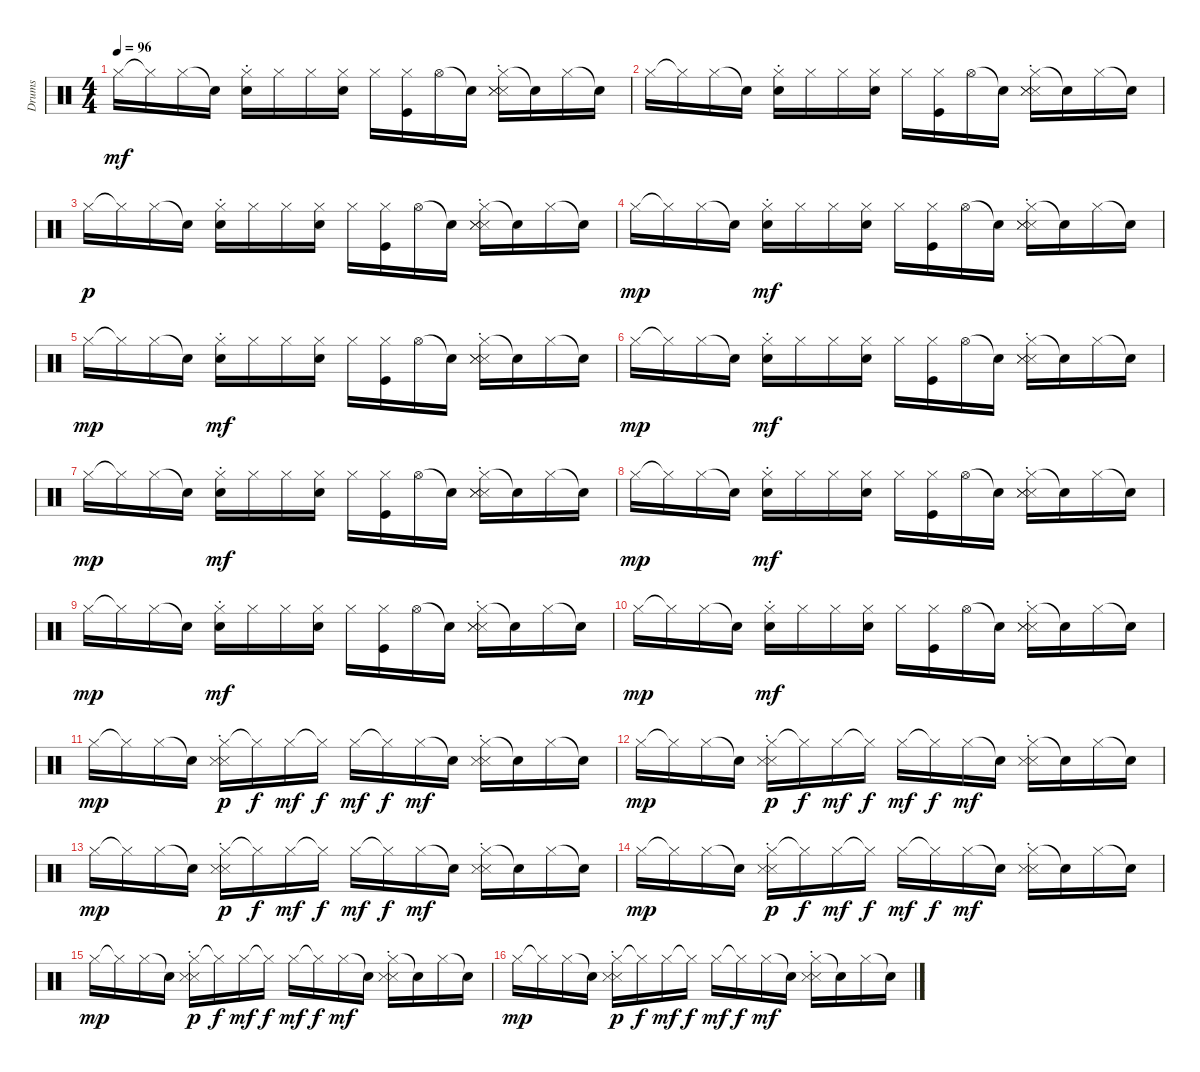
\track ("Drums" "Drums") {instrument percussion}
\staff {score}
\articulation defaults
\ts (4 4)
\tempo 96
\clef neutral
\ks c "Hi-Hat (closed)".16{dy mf} "Hi-Hat (closed)"{t}.16 "Hi-Hat (closed)".16 "Snare (hit)"{t}.16
("Hi-Hat (closed)" "Snare (hit) 2"{st}).16 "Hi-Hat (closed)".16 "Hi-Hat (closed)".16 ("Hi-Hat (closed)" "Snare (hit) 2").16 "Hi-Hat (closed)".16 ("Hi-Hat (closed)" "Kick (hit)").16 "Hi-Hat (open)".16 "Snare (hit)"{t}.16 ("Hi-Hat (closed)" "Snare (side stick) 3"{st} "Snare (side stick) 3" "Snare (side stick) 3").16 "Snare (hit)"{t}.16 "Hi-Hat (closed)".16 "Snare (hit)"{t}.16 |
"Hi-Hat (closed)".16 "Hi-Hat (closed)"{t}.16 "Hi-Hat (closed)".16 "Snare (hit)"{t}.16 ("Hi-Hat (closed)" "Snare (hit) 2"{st}).16 "Hi-Hat (closed)".16 "Hi-Hat (closed)".16 ("Hi-Hat (closed)" "Snare (hit) 2").16 "Hi-Hat (closed)".16 ("Hi-Hat (closed)" "Kick (hit)").16 "Hi-Hat (open)".16 "Snare (hit)"{t}.16 ("Hi-Hat (closed)" "Snare (side stick) 3"{st} "Snare (side stick) 3" "Snare (side stick) 3").16 "Snare (hit)"{t}.16 "Hi-Hat (closed)".16 "Snare (hit)"{t}.16 |
"Hi-Hat (closed)".16{dy p} "Hi-Hat (closed)"{t}.16 "Hi-Hat (closed)".16 "Snare (hit)"{t}.16 ("Hi-Hat (closed)" "Snare (hit) 2"{st}).16 "Hi-Hat (closed)".16 "Hi-Hat (closed)".16 ("Hi-Hat (closed)" "Snare (hit) 2").16 "Hi-Hat (closed)".16 ("Hi-Hat (closed)" "Kick (hit)").16 "Hi-Hat (open)".16 "Snare (hit)"{t}.16 ("Hi-Hat (closed)" "Snare (side stick) 3"{st} "Snare (side stick) 3" "Snare (side stick) 3").16 "Snare (hit)"{t}.16 "Hi-Hat (closed)".16 "Snare (hit)"{t}.16 |
"Hi-Hat (closed)".16{dy mp} "Hi-Hat (closed)"{t}.16 "Hi-Hat (closed)".16 "Snare (hit)"{t}.16 ("Hi-Hat (closed)" "Snare (hit) 2"{st}).16{dy mf} "Hi-Hat (closed)".16 "Hi-Hat (closed)".16 ("Hi-Hat (closed)" "Snare (hit) 2").16 "Hi-Hat (closed)".16 ("Hi-Hat (closed)" "Kick (hit)").16 "Hi-Hat (open)".16 "Snare (hit)"{t}.16 ("Hi-Hat (closed)" "Snare (side stick) 3"{st} "Snare (side stick) 3" "Snare (side stick) 3").16 "Snare (hit)"{t}.16 "Hi-Hat (closed)".16 "Snare (hit)"{t}.16 |
"Hi-Hat (closed)".16{dy mp} "Hi-Hat (closed)"{t}.16 "Hi-Hat (closed)".16 "Snare (hit)"{t}.16 ("Hi-Hat (closed)" "Snare (hit) 2"{st}).16{dy mf} "Hi-Hat (closed)".16 "Hi-Hat (closed)".16 ("Hi-Hat (closed)" "Snare (hit) 2").16 "Hi-Hat (closed)".16 ("Hi-Hat (closed)" "Kick (hit)").16 "Hi-Hat (open)".16 "Snare (hit)"{t}.16 ("Hi-Hat (closed)" "Snare (side stick) 3"{st} "Snare (side stick) 3" "Snare (side stick) 3").16 "Snare (hit)"{t}.16 "Hi-Hat (closed)".16 "Snare (hit)"{t}.16 |
"Hi-Hat (closed)".16{dy mp} "Hi-Hat (closed)"{t}.16 "Hi-Hat (closed)".16 "Snare (hit)"{t}.16 ("Hi-Hat (closed)" "Snare (hit) 2"{st}).16{dy mf} "Hi-Hat (closed)".16 "Hi-Hat (closed)".16 ("Hi-Hat (closed)" "Snare (hit) 2").16 "Hi-Hat (closed)".16 ("Hi-Hat (closed)" "Kick (hit)").16 "Hi-Hat (open)".16 "Snare (hit)"{t}.16 ("Hi-Hat (closed)" "Snare (side stick) 3"{st} "Snare (side stick) 3" "Snare (side stick) 3").16 "Snare (hit)"{t}.16 "Hi-Hat (closed)".16 "Snare (hit)"{t}.16 |
"Hi-Hat (closed)".16{dy mp} "Hi-Hat (closed)"{t}.16 "Hi-Hat (closed)".16 "Snare (hit)"{t}.16 ("Hi-Hat (closed)" "Snare (hit) 2"{st}).16{dy mf} "Hi-Hat (closed)".16 "Hi-Hat (closed)".16 ("Hi-Hat (closed)" "Snare (hit) 2").16 "Hi-Hat (closed)".16 ("Hi-Hat (closed)" "Kick (hit)").16 "Hi-Hat (open)".16 "Snare (hit)"{t}.16 ("Hi-Hat (closed)" "Snare (side stick) 3"{st} "Snare (side stick) 3" "Snare (side stick) 3").16 "Snare (hit)"{t}.16 "Hi-Hat (closed)".16 "Snare (hit)"{t}.16 |
"Hi-Hat (closed)".16{dy mp} "Hi-Hat (closed)"{t}.16 "Hi-Hat (closed)".16 "Snare (hit)"{t}.16 ("Hi-Hat (closed)" "Snare (hit) 2"{st}).16{dy mf} "Hi-Hat (closed)".16 "Hi-Hat (closed)".16 ("Hi-Hat (closed)" "Snare (hit) 2").16 "Hi-Hat (closed)".16 ("Hi-Hat (closed)" "Kick (hit)").16 "Hi-Hat (open)".16 "Snare (hit)"{t}.16 ("Hi-Hat (closed)" "Snare (side stick) 3"{st} "Snare (side stick) 3" "Snare (side stick) 3").16 "Snare (hit)"{t}.16 "Hi-Hat (closed)".16 "Snare (hit)"{t}.16 |
"Hi-Hat (closed)".16{dy mp} "Hi-Hat (closed)"{t}.16 "Hi-Hat (closed)".16 "Snare (hit)"{t}.16 ("Hi-Hat (closed)" "Snare (hit) 2"{st}).16{dy mf} "Hi-Hat (closed)".16 "Hi-Hat (closed)".16 ("Hi-Hat (closed)" "Snare (hit) 2").16 "Hi-Hat (closed)".16 ("Hi-Hat (closed)" "Kick (hit)").16 "Hi-Hat (open)".16 "Snare (hit)"{t}.16 ("Hi-Hat (closed)" "Snare (side stick) 3"{st} "Snare (side stick) 3" "Snare (side stick) 3").16 "Snare (hit)"{t}.16 "Hi-Hat (closed)".16 "Snare (hit)"{t}.16 |
"Hi-Hat (closed)".16{dy mp} "Hi-Hat (closed)"{t}.16 "Hi-Hat (closed)".16 "Snare (hit)"{t}.16 ("Hi-Hat (closed)" "Snare (hit) 2"{st}).16{dy mf} "Hi-Hat (closed)".16 "Hi-Hat (closed)".16 ("Hi-Hat (closed)" "Snare (hit) 2").16 "Hi-Hat (closed)".16 ("Hi-Hat (closed)" "Kick (hit)").16 "Hi-Hat (open)".16 "Snare (hit)"{t}.16 ("Hi-Hat (closed)" "Snare (side stick) 3"{st} "Snare (side stick) 3" "Snare (side stick) 3").16 "Snare (hit)"{t}.16 "Hi-Hat (closed)".16 "Snare (hit)"{t}.16 |
"Hi-Hat (closed)".16{dy mp} "Hi-Hat (closed)"{t}.16 "Hi-Hat (closed)".16 "Snare (hit)"{t}.16 ("Hi-Hat (closed)" "Snare (side stick) 3"{st} "Snare (side stick) 3").16{dy p} "Hi-Hat (closed)"{t}.16{dy f} "Hi-Hat (closed)".16{dy mf} "Hi-Hat (closed)"{t}.16{dy f} "Hi-Hat (closed)".16{dy mf} "Hi-Hat (closed)"{t}.16{dy f} "Hi-Hat (closed)".16{dy mf} "Snare (hit)"{t}.16 ("Hi-Hat (closed)" "Snare (side stick) 3"{st} "Snare (side stick) 3").16 "Snare (hit)"{t}.16 "Hi-Hat (closed)".16 "Snare (hit)"{t}.16 |
"Hi-Hat (closed)".16{dy mp} "Hi-Hat (closed)"{t}.16 "Hi-Hat (closed)".16 "Snare (hit)"{t}.16 ("Hi-Hat (closed)" "Snare (side stick) 3"{st} "Snare (side stick) 3").16{dy p} "Hi-Hat (closed)"{t}.16{dy f} "Hi-Hat (closed)".16{dy mf} "Hi-Hat (closed)"{t}.16{dy f} "Hi-Hat (closed)".16{dy mf} "Hi-Hat (closed)"{t}.16{dy f} "Hi-Hat (closed)".16{dy mf} "Snare (hit)"{t}.16 ("Hi-Hat (closed)" "Snare (side stick) 3"{st} "Snare (side stick) 3").16 "Snare (hit)"{t}.16 "Hi-Hat (closed)".16 "Snare (hit)"{t}.16 |
"Hi-Hat (closed)".16{dy mp} "Hi-Hat (closed)"{t}.16 "Hi-Hat (closed)".16 "Snare (hit)"{t}.16 ("Hi-Hat (closed)" "Snare (side stick) 3"{st} "Snare (side stick) 3").16{dy p} "Hi-Hat (closed)"{t}.16{dy f} "Hi-Hat (closed)".16{dy mf} "Hi-Hat (closed)"{t}.16{dy f} "Hi-Hat (closed)".16{dy mf} "Hi-Hat (closed)"{t}.16{dy f} "Hi-Hat (closed)".16{dy mf} "Snare (hit)"{t}.16 ("Hi-Hat (closed)" "Snare (side stick) 3"{st} "Snare (side stick) 3").16 "Snare (hit)"{t}.16 "Hi-Hat (closed)".16 "Snare (hit)"{t}.16 |
"Hi-Hat (closed)".16{dy mp} "Hi-Hat (closed)"{t}.16 "Hi-Hat (closed)".16 "Snare (hit)"{t}.16 ("Hi-Hat (closed)" "Snare (side stick) 3"{st} "Snare (side stick) 3").16{dy p} "Hi-Hat (closed)"{t}.16{dy f} "Hi-Hat (closed)".16{dy mf} "Hi-Hat (closed)"{t}.16{dy f} "Hi-Hat (closed)".16{dy mf} "Hi-Hat (closed)"{t}.16{dy f} "Hi-Hat (closed)".16{dy mf} "Snare (hit)"{t}.16 ("Hi-Hat (closed)" "Snare (side stick) 3"{st} "Snare (side stick) 3").16 "Snare (hit)"{t}.16 "Hi-Hat (closed)".16 "Snare (hit)"{t}.16 |
"Hi-Hat (closed)".16{dy mp} "Hi-Hat (closed)"{t}.16 "Hi-Hat (closed)".16 "Snare (hit)"{t}.16 ("Hi-Hat (closed)" "Snare (side stick) 3"{st} "Snare (side stick) 3").16{dy p} "Hi-Hat (closed)"{t}.16{dy f} "Hi-Hat (closed)".16{dy mf} "Hi-Hat (closed)"{t}.16{dy f} "Hi-Hat (closed)".16{dy mf} "Hi-Hat (closed)"{t}.16{dy f} "Hi-Hat (closed)".16{dy mf} "Snare (hit)"{t}.16 ("Hi-Hat (closed)" "Snare (side stick) 3"{st} "Snare (side stick) 3").16 "Snare (hit)"{t}.16 "Hi-Hat (closed)".16 "Snare (hit)"{t}.16 |
"Hi-Hat (closed)".16{dy mp} "Hi-Hat (closed)"{t}.16 "Hi-Hat (closed)".16 "Snare (hit)"{t}.16 ("Hi-Hat (closed)" "Snare (side stick) 3"{st} "Snare (side stick) 3").16{dy p} "Hi-Hat (closed)"{t}.16{dy f} "Hi-Hat (closed)".16{dy mf} "Hi-Hat (closed)"{t}.16{dy f} "Hi-Hat (closed)".16{dy mf} "Hi-Hat (closed)"{t}.16{dy f} "Hi-Hat (closed)".16{dy mf} "Snare (hit)"{t}.16 ("Hi-Hat (closed)" "Snare (side stick) 3"{st} "Snare (side stick) 3").16 "Snare (hit)"{t}.16 "Hi-Hat (closed)".16 "Snare (hit)"{t}.16
